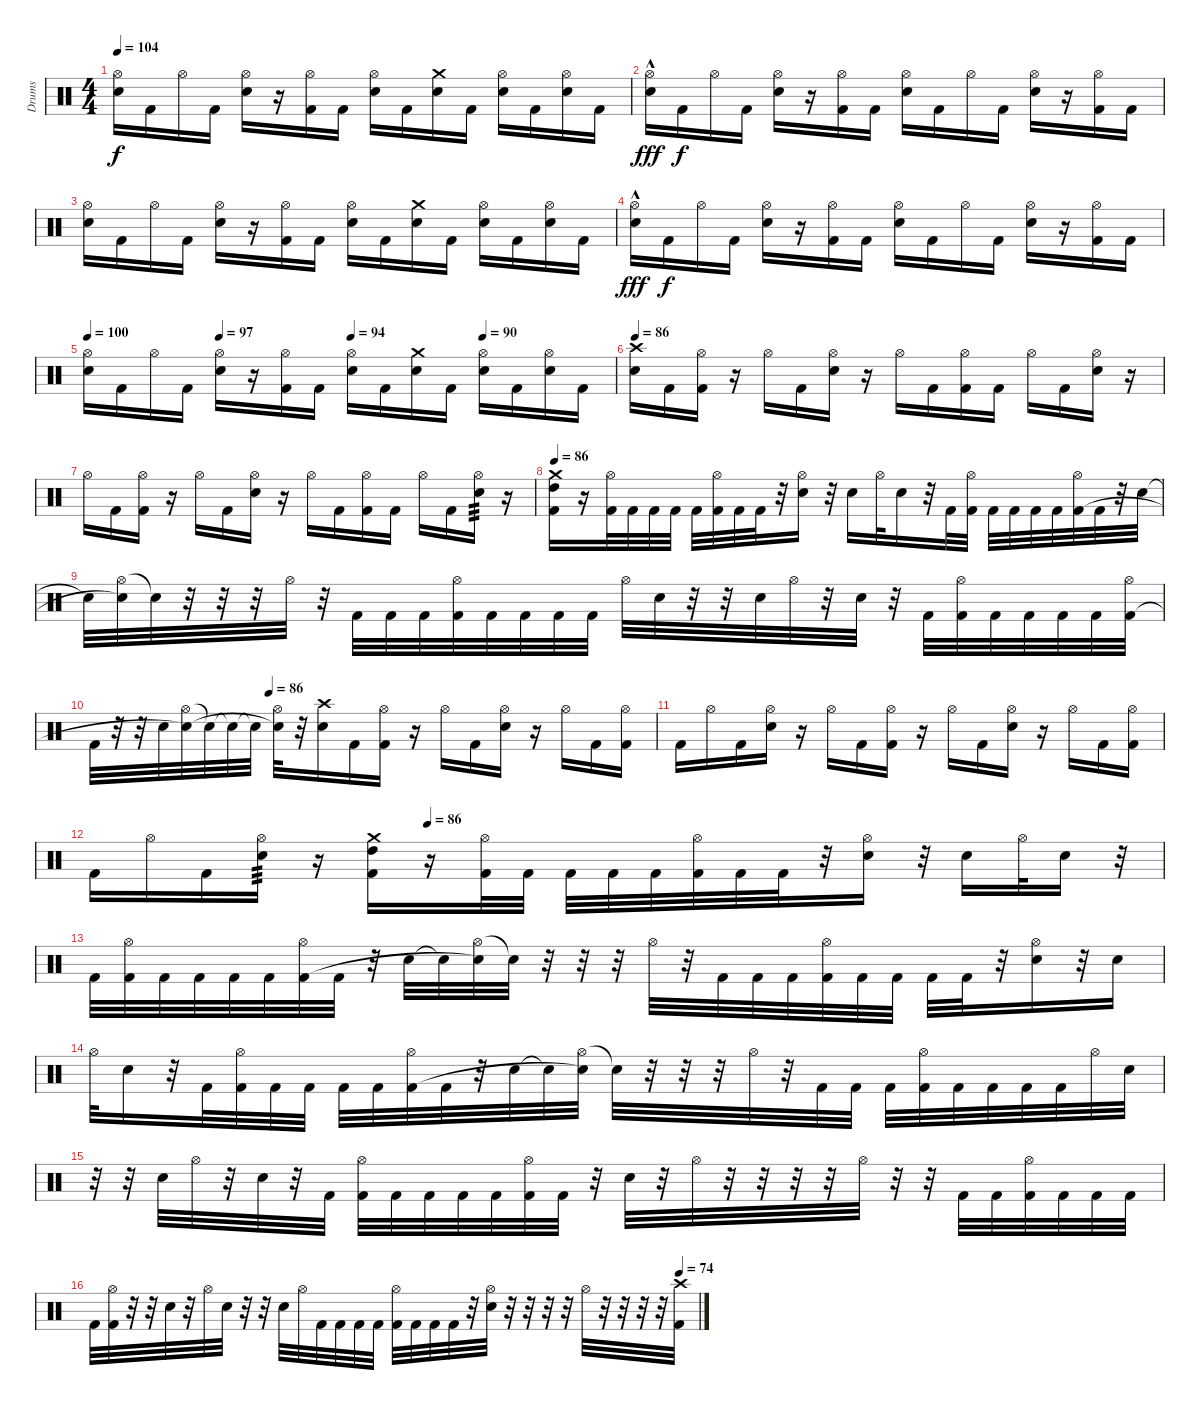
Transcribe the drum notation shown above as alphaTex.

\track ("Drums" "Drums") {instrument percussion}
\staff {score}
\articulation defaults
\ts (4 4)
\tempo 104
\clef neutral
\ks c
("Hi-Hat (open)" "Electric Snare (hit)").16{dy f} "Kick (hit) 2".16 "Hi-Hat (open)".16 "Kick (hit) 2".16 ("Hi-Hat (open)" "Electric Snare (hit)").16 r.16 ("Hi-Hat (open)" "Kick (hit) 2").16 "Kick (hit) 2".16 ("Hi-Hat (open)" "Electric Snare (hit)").16 "Kick (hit) 2".16 ("Crash medium (hit)" "Electric Snare (hit)").16 "Kick (hit) 2".16 ("Hi-Hat (open)" "Electric Snare (hit)").16 "Kick (hit) 2".16 ("Hi-Hat (open)" "Electric Snare (hit)").16 "Kick (hit) 2".16 |
("Hi-Hat (open)" "Electric Snare (hit)"{hac}).16{dy fff} "Kick (hit) 2".16{dy f} "Hi-Hat (open)".16 "Kick (hit) 2".16 ("Hi-Hat (open)" "Electric Snare (hit)").16 r.16 ("Hi-Hat (open)" "Kick (hit) 2").16 "Kick (hit) 2".16 ("Hi-Hat (open)" "Electric Snare (hit)").16 "Kick (hit) 2".16 "Hi-Hat (open)".16 "Kick (hit) 2".16 ("Hi-Hat (open)" "Electric Snare (hit)").16 r.16 ("Hi-Hat (open)" "Kick (hit) 2").16 "Kick (hit) 2".16 |
("Hi-Hat (open)" "Electric Snare (hit)").16 "Kick (hit) 2".16 "Hi-Hat (open)".16 "Kick (hit) 2".16 ("Hi-Hat (open)" "Electric Snare (hit)").16 r.16 ("Hi-Hat (open)" "Kick (hit) 2").16 "Kick (hit) 2".16 ("Hi-Hat (open)" "Electric Snare (hit)").16 "Kick (hit) 2".16 ("Crash medium (hit)" "Electric Snare (hit)").16 "Kick (hit) 2".16 ("Hi-Hat (open)" "Electric Snare (hit)").16 "Kick (hit) 2".16 ("Hi-Hat (open)" "Electric Snare (hit)").16 "Kick (hit) 2".16 |
("Hi-Hat (open)" "Electric Snare (hit)"{hac}).16{dy fff} "Kick (hit) 2".16{dy f} "Hi-Hat (open)".16 "Kick (hit) 2".16 ("Hi-Hat (open)" "Electric Snare (hit)").16 r.16 ("Hi-Hat (open)" "Kick (hit) 2").16 "Kick (hit) 2".16 ("Hi-Hat (open)" "Electric Snare (hit)").16 "Kick (hit) 2".16 "Hi-Hat (open)".16 "Kick (hit) 2".16 ("Hi-Hat (open)" "Electric Snare (hit)").16 r.16 ("Hi-Hat (open)" "Kick (hit) 2").16 "Kick (hit) 2".16 |
\tempo 100
\tempo (97 0.25)
\tempo (94 0.5)
\tempo (90 0.75)
("Hi-Hat (open)" "Electric Snare (hit)").16 "Kick (hit) 2".16 "Hi-Hat (open)".16 "Kick (hit) 2".16 ("Hi-Hat (open)" "Electric Snare (hit)").16 r.16 ("Hi-Hat (open)" "Kick (hit) 2").16 "Kick (hit) 2".16 ("Hi-Hat (open)" "Electric Snare (hit)").16 "Kick (hit) 2".16 ("Crash medium (hit)" "Electric Snare (hit)").16 "Kick (hit) 2".16 ("Hi-Hat (open)" "Electric Snare (hit)").16 "Kick (hit) 2".16 ("Hi-Hat (open)" "Electric Snare (hit)").16 "Kick (hit) 2".16 |
\tempo 86
("Crash high (hit)" "Electric Snare (hit)").16 "Kick (hit) 2".16 ("Hi-Hat (open)" "Kick (hit) 2").16 r.16 "Hi-Hat (open)".16 "Kick (hit) 2".16 ("Hi-Hat (open)" "Electric Snare (hit)").16 r.16 "Hi-Hat (open)".16 "Kick (hit) 2".16 ("Hi-Hat (open)" "Kick (hit) 2").16 "Kick (hit) 2".16 "Hi-Hat (open)".16 "Kick (hit) 2".16 ("Hi-Hat (open)" "Electric Snare (hit)").16 r.16 |
"Hi-Hat (open)".16 "Kick (hit) 2".16 ("Hi-Hat (open)" "Kick (hit) 2").16 r.16 "Hi-Hat (open)".16 "Kick (hit) 2".16 ("Hi-Hat (open)" "Electric Snare (hit)").16 r.16 "Hi-Hat (open)".16 "Kick (hit) 2".16 ("Hi-Hat (open)" "Kick (hit) 2").16 "Kick (hit) 2".16 "Hi-Hat (open)".16 "Kick (hit) 2".16 ("Hi-Hat (open)" "Electric Snare (hit)").16{tp 3} r.16 |
\tempo 86
("Crash medium (hit)" "High Tom (hit)" "Kick (hit) 2").16 r.16 ("Hi-Hat (open)" "Kick (hit) 2").32 "Kick (hit) 2".32 "Kick (hit) 2".32 "Kick (hit) 2".32 "Kick (hit) 2".32 ("Hi-Hat (open)" "Kick (hit) 2").32 "Kick (hit) 2".32 "Kick (hit) 2".32 r.32 ("Hi-Hat (open)" "Electric Snare (hit)").16 r.32 "Electric Snare (hit)".16 "Hi-Hat (open)".32 "Electric Snare (hit)".16 r.32 "Kick (hit) 2".32 ("Hi-Hat (open)" "Kick (hit) 2").32 "Kick (hit) 2".32 "Kick (hit) 2".32 "Kick (hit) 2".32 "Kick (hit) 2".32 ("Hi-Hat (open)" "Kick (hit) 2").32 "Kick (hit) 2".32 r.32 "Electric Snare (hit)".32 |
"Snare (hit)"{t}.32 ("Hi-Hat (open)" "Snare (hit)"{t}).32 "Snare (hit)"{t}.32 r.32 r.32 r.32 "Hi-Hat (open)".32 r.32 "Kick (hit) 2".32 "Kick (hit) 2".32 "Kick (hit) 2".32 ("Hi-Hat (open)" "Kick (hit) 2").32 "Kick (hit) 2".32 "Kick (hit) 2".32 "Kick (hit) 2".32 "Kick (hit) 2".32 "Hi-Hat (open)".32 "Electric Snare (hit)".32 r.32 r.32 "Electric Snare (hit)".32 "Hi-Hat (open)".32 r.32 "Electric Snare (hit)".32 r.32 "Kick (hit) 2".32 ("Hi-Hat (open)" "Kick (hit) 2").32 "Kick (hit) 2".32 "Kick (hit) 2".32 "Kick (hit) 2".32 "Kick (hit) 2".32 ("Hi-Hat (open)" "Kick (hit) 2").32 |
\tempo (86 0.3125)
"Kick (hit) 2".32 r.32 r.32 "Electric Snare (hit)".32 ("Hi-Hat (open)" "Snare (hit)"{t}).32 "Snare (hit)"{t}.32 "Snare (hit)"{t}.32 "Snare (hit)"{t}.32 ("Hi-Hat (open)" "Snare (hit)"{t}).32 r.32 ("Crash high (hit)" "Electric Snare (hit)").16 "Kick (hit) 2".16 ("Hi-Hat (open)" "Kick (hit) 2").16 r.16 "Hi-Hat (open)".16 "Kick (hit) 2".16 ("Hi-Hat (open)" "Electric Snare (hit)").16 r.16 "Hi-Hat (open)".16 "Kick (hit) 2".16 ("Hi-Hat (open)" "Kick (hit) 2").16 |
"Kick (hit) 2".16 "Hi-Hat (open)".16 "Kick (hit) 2".16 ("Hi-Hat (open)" "Electric Snare (hit)").16 r.16 "Hi-Hat (open)".16 "Kick (hit) 2".16 ("Hi-Hat (open)" "Kick (hit) 2").16 r.16 "Hi-Hat (open)".16 "Kick (hit) 2".16 ("Hi-Hat (open)" "Electric Snare (hit)").16 r.16 "Hi-Hat (open)".16 "Kick (hit) 2".16 ("Hi-Hat (open)" "Kick (hit) 2").16 |
\tempo (86 0.3125)
"Kick (hit) 2".16 "Hi-Hat (open)".16 "Kick (hit) 2".16 ("Hi-Hat (open)" "Electric Snare (hit)").16{tp 3} r.16 ("Crash medium (hit)" "High Tom (hit)" "Kick (hit) 2").16 r.16 ("Hi-Hat (open)" "Kick (hit) 2").32 "Kick (hit) 2".32 "Kick (hit) 2".32 "Kick (hit) 2".32 "Kick (hit) 2".32 ("Hi-Hat (open)" "Kick (hit) 2").32 "Kick (hit) 2".32 "Kick (hit) 2".32 r.32 ("Hi-Hat (open)" "Electric Snare (hit)").16 r.32 "Electric Snare (hit)".16 "Hi-Hat (open)".32 "Electric Snare (hit)".16 r.32 |
"Kick (hit) 2".32 ("Hi-Hat (open)" "Kick (hit) 2").32 "Kick (hit) 2".32 "Kick (hit) 2".32 "Kick (hit) 2".32 "Kick (hit) 2".32 ("Hi-Hat (open)" "Kick (hit) 2").32 "Kick (hit) 2".32 r.32 "Electric Snare (hit)".32 "Snare (hit)"{t}.32 ("Hi-Hat (open)" "Snare (hit)"{t}).32 "Snare (hit)"{t}.32 r.32 r.32 r.32 "Hi-Hat (open)".32 r.32 "Kick (hit) 2".32 "Kick (hit) 2".32 "Kick (hit) 2".32 ("Hi-Hat (open)" "Kick (hit) 2").32 "Kick (hit) 2".32 "Kick (hit) 2".32 "Kick (hit) 2".32 "Kick (hit) 2".32 r.32 ("Hi-Hat (open)" "Electric Snare (hit)").16 r.32 "Electric Snare (hit)".16 |
"Hi-Hat (open)".32 "Electric Snare (hit)".16 r.32 "Kick (hit) 2".32 ("Hi-Hat (open)" "Kick (hit) 2").32 "Kick (hit) 2".32 "Kick (hit) 2".32 "Kick (hit) 2".32 "Kick (hit) 2".32 ("Hi-Hat (open)" "Kick (hit) 2").32 "Kick (hit) 2".32 r.32 "Electric Snare (hit)".32 "Snare (hit)"{t}.32 ("Hi-Hat (open)" "Snare (hit)"{t}).32 "Snare (hit)"{t}.32 r.32 r.32 r.32 "Hi-Hat (open)".32 r.32 "Kick (hit) 2".32 "Kick (hit) 2".32 "Kick (hit) 2".32 ("Hi-Hat (open)" "Kick (hit) 2").32 "Kick (hit) 2".32 "Kick (hit) 2".32 "Kick (hit) 2".32 "Kick (hit) 2".32 "Hi-Hat (open)".32 "Electric Snare (hit)".32 |
r.32 r.32 "Electric Snare (hit)".32 "Hi-Hat (open)".32 r.32 "Electric Snare (hit)".32 r.32 "Kick (hit) 2".32 ("Hi-Hat (open)" "Kick (hit) 2").32 "Kick (hit) 2".32 "Kick (hit) 2".32 "Kick (hit) 2".32 "Kick (hit) 2".32 ("Hi-Hat (open)" "Kick (hit) 2").32 "Kick (hit) 2".32 r.32 "Electric Snare (hit)".32 r.32 "Hi-Hat (open)".32 r.32 r.32 r.32 r.32 "Hi-Hat (open)".32 r.32 r.32 "Kick (hit) 2".32 "Kick (hit) 2".32 ("Hi-Hat (open)" "Kick (hit) 2").32 "Kick (hit) 2".32 "Kick (hit) 2".32 "Kick (hit) 2".32 |
\tempo (74 0.96875)
"Kick (hit) 2".32 ("Hi-Hat (open)" "Kick (hit) 2").32 r.32 r.32 "Electric Snare (hit)".32 r.32 "Hi-Hat (open)".32 "Electric Snare (hit)".32 r.32 r.32 "Electric Snare (hit)".32 "Hi-Hat (open)".32 "Kick (hit) 2".32 "Kick (hit) 2".32 "Kick (hit) 2".32 "Kick (hit) 2".32 ("Hi-Hat (open)" "Kick (hit) 2").32 "Kick (hit) 2".32 "Kick (hit) 2".32 "Kick (hit) 2".32 r.32 ("Hi-Hat (open)" "Electric Snare (hit)").32 r.32 r.32 r.32 r.32 "Hi-Hat (open)".32 r.32 r.32 r.32 r.32 ("Crash high (hit)" "Kick (hit) 2").32
